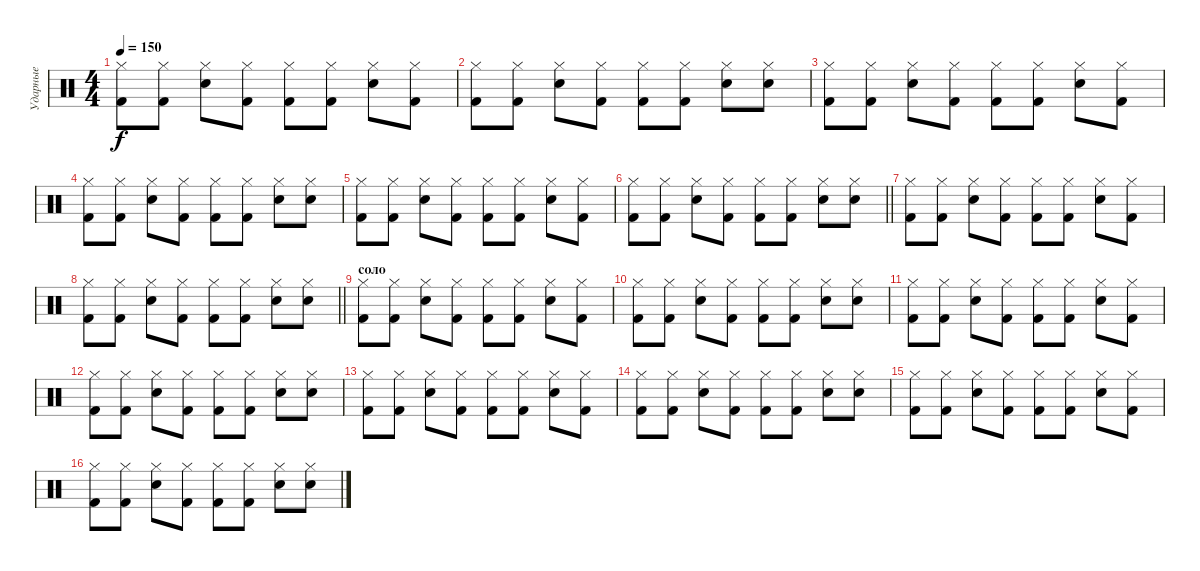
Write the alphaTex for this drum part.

\track ("Ударные" "Ударные") {instrument percussion}
\staff {score}
\articulation defaults
\ts (4 4)
\tempo 150
\clef neutral
\ks c
("Hi-Hat (closed)" "Kick (hit) 2").8{dy f} ("Hi-Hat (closed)" "Kick (hit) 2").8 ("Hi-Hat (closed)" "Snare (hit) 2").8 ("Hi-Hat (closed)" "Kick (hit) 2").8 ("Hi-Hat (closed)" "Kick (hit) 2").8 ("Hi-Hat (closed)" "Kick (hit) 2").8 ("Hi-Hat (closed)" "Snare (hit) 2").8 ("Hi-Hat (closed)" "Kick (hit) 2").8 |
("Hi-Hat (closed)" "Kick (hit) 2").8 ("Hi-Hat (closed)" "Kick (hit) 2").8 ("Hi-Hat (closed)" "Snare (hit) 2").8 ("Hi-Hat (closed)" "Kick (hit) 2").8 ("Hi-Hat (closed)" "Kick (hit) 2").8 ("Hi-Hat (closed)" "Kick (hit) 2").8 ("Hi-Hat (closed)" "Snare (hit) 2").8 ("Hi-Hat (closed)" "Snare (hit) 2").8 |
("Hi-Hat (closed)" "Kick (hit) 2").8 ("Hi-Hat (closed)" "Kick (hit) 2").8 ("Hi-Hat (closed)" "Snare (hit) 2").8 ("Hi-Hat (closed)" "Kick (hit) 2").8 ("Hi-Hat (closed)" "Kick (hit) 2").8 ("Hi-Hat (closed)" "Kick (hit) 2").8 ("Hi-Hat (closed)" "Snare (hit) 2").8 ("Hi-Hat (closed)" "Kick (hit) 2").8 |
("Hi-Hat (closed)" "Kick (hit) 2").8 ("Hi-Hat (closed)" "Kick (hit) 2").8 ("Hi-Hat (closed)" "Snare (hit) 2").8 ("Hi-Hat (closed)" "Kick (hit) 2").8 ("Hi-Hat (closed)" "Kick (hit) 2").8 ("Hi-Hat (closed)" "Kick (hit) 2").8 ("Hi-Hat (closed)" "Snare (hit) 2").8 ("Hi-Hat (closed)" "Snare (hit) 2").8 |
("Hi-Hat (closed)" "Kick (hit) 2").8 ("Hi-Hat (closed)" "Kick (hit) 2").8 ("Hi-Hat (closed)" "Snare (hit) 2").8 ("Hi-Hat (closed)" "Kick (hit) 2").8 ("Hi-Hat (closed)" "Kick (hit) 2").8 ("Hi-Hat (closed)" "Kick (hit) 2").8 ("Hi-Hat (closed)" "Snare (hit) 2").8 ("Hi-Hat (closed)" "Kick (hit) 2").8 |
\barLineRight lightlight
("Hi-Hat (closed)" "Kick (hit) 2").8 ("Hi-Hat (closed)" "Kick (hit) 2").8 ("Hi-Hat (closed)" "Snare (hit) 2").8 ("Hi-Hat (closed)" "Kick (hit) 2").8 ("Hi-Hat (closed)" "Kick (hit) 2").8 ("Hi-Hat (closed)" "Kick (hit) 2").8 ("Hi-Hat (closed)" "Snare (hit) 2").8 ("Hi-Hat (closed)" "Snare (hit) 2").8 |
("Hi-Hat (closed)" "Kick (hit) 2").8 ("Hi-Hat (closed)" "Kick (hit) 2").8 ("Hi-Hat (closed)" "Snare (hit) 2").8 ("Hi-Hat (closed)" "Kick (hit) 2").8 ("Hi-Hat (closed)" "Kick (hit) 2").8 ("Hi-Hat (closed)" "Kick (hit) 2").8 ("Hi-Hat (closed)" "Snare (hit) 2").8 ("Hi-Hat (closed)" "Kick (hit) 2").8 |
\barLineRight lightlight
("Hi-Hat (closed)" "Kick (hit) 2").8 ("Hi-Hat (closed)" "Kick (hit) 2").8 ("Hi-Hat (closed)" "Snare (hit) 2").8 ("Hi-Hat (closed)" "Kick (hit) 2").8 ("Hi-Hat (closed)" "Kick (hit) 2").8 ("Hi-Hat (closed)" "Kick (hit) 2").8 ("Hi-Hat (closed)" "Snare (hit) 2").8 ("Hi-Hat (closed)" "Snare (hit) 2").8 |
\section ("" "соло")
("Hi-Hat (closed)" "Kick (hit) 2").8 ("Hi-Hat (closed)" "Kick (hit) 2").8 ("Hi-Hat (closed)" "Snare (hit) 2").8 ("Hi-Hat (closed)" "Kick (hit) 2").8 ("Hi-Hat (closed)" "Kick (hit) 2").8 ("Hi-Hat (closed)" "Kick (hit) 2").8 ("Hi-Hat (closed)" "Snare (hit) 2").8 ("Hi-Hat (closed)" "Kick (hit) 2").8 |
("Hi-Hat (closed)" "Kick (hit) 2").8 ("Hi-Hat (closed)" "Kick (hit) 2").8 ("Hi-Hat (closed)" "Snare (hit) 2").8 ("Hi-Hat (closed)" "Kick (hit) 2").8 ("Hi-Hat (closed)" "Kick (hit) 2").8 ("Hi-Hat (closed)" "Kick (hit) 2").8 ("Hi-Hat (closed)" "Snare (hit) 2").8 ("Hi-Hat (closed)" "Snare (hit) 2").8 |
("Hi-Hat (closed)" "Kick (hit) 2").8 ("Hi-Hat (closed)" "Kick (hit) 2").8 ("Hi-Hat (closed)" "Snare (hit) 2").8 ("Hi-Hat (closed)" "Kick (hit) 2").8 ("Hi-Hat (closed)" "Kick (hit) 2").8 ("Hi-Hat (closed)" "Kick (hit) 2").8 ("Hi-Hat (closed)" "Snare (hit) 2").8 ("Hi-Hat (closed)" "Kick (hit) 2").8 |
("Hi-Hat (closed)" "Kick (hit) 2").8 ("Hi-Hat (closed)" "Kick (hit) 2").8 ("Hi-Hat (closed)" "Snare (hit) 2").8 ("Hi-Hat (closed)" "Kick (hit) 2").8 ("Hi-Hat (closed)" "Kick (hit) 2").8 ("Hi-Hat (closed)" "Kick (hit) 2").8 ("Hi-Hat (closed)" "Snare (hit) 2").8 ("Hi-Hat (closed)" "Snare (hit) 2").8 |
("Hi-Hat (closed)" "Kick (hit) 2").8 ("Hi-Hat (closed)" "Kick (hit) 2").8 ("Hi-Hat (closed)" "Snare (hit) 2").8 ("Hi-Hat (closed)" "Kick (hit) 2").8 ("Hi-Hat (closed)" "Kick (hit) 2").8 ("Hi-Hat (closed)" "Kick (hit) 2").8 ("Hi-Hat (closed)" "Snare (hit) 2").8 ("Hi-Hat (closed)" "Kick (hit) 2").8 |
("Hi-Hat (closed)" "Kick (hit) 2").8 ("Hi-Hat (closed)" "Kick (hit) 2").8 ("Hi-Hat (closed)" "Snare (hit) 2").8 ("Hi-Hat (closed)" "Kick (hit) 2").8 ("Hi-Hat (closed)" "Kick (hit) 2").8 ("Hi-Hat (closed)" "Kick (hit) 2").8 ("Hi-Hat (closed)" "Snare (hit) 2").8 ("Hi-Hat (closed)" "Snare (hit) 2").8 |
("Hi-Hat (closed)" "Kick (hit) 2").8 ("Hi-Hat (closed)" "Kick (hit) 2").8 ("Hi-Hat (closed)" "Snare (hit) 2").8 ("Hi-Hat (closed)" "Kick (hit) 2").8 ("Hi-Hat (closed)" "Kick (hit) 2").8 ("Hi-Hat (closed)" "Kick (hit) 2").8 ("Hi-Hat (closed)" "Snare (hit) 2").8 ("Hi-Hat (closed)" "Kick (hit) 2").8 |
("Hi-Hat (closed)" "Kick (hit) 2").8 ("Hi-Hat (closed)" "Kick (hit) 2").8 ("Hi-Hat (closed)" "Snare (hit) 2").8 ("Hi-Hat (closed)" "Kick (hit) 2").8 ("Hi-Hat (closed)" "Kick (hit) 2").8 ("Hi-Hat (closed)" "Kick (hit) 2").8 ("Hi-Hat (closed)" "Snare (hit) 2").8 ("Hi-Hat (closed)" "Snare (hit) 2").8
